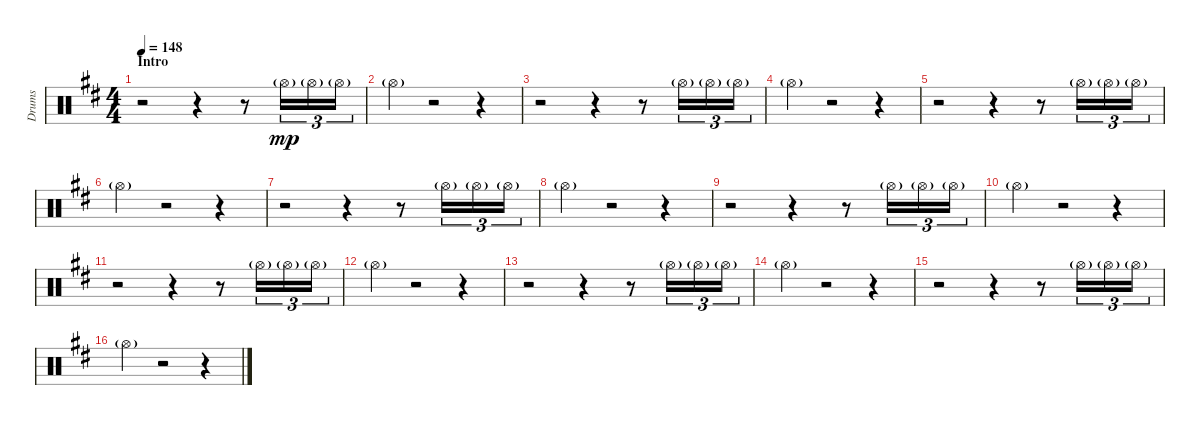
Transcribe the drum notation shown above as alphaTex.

\track ("Drums" "Drums") {instrument percussion}
\staff {score}
\articulation defaults
\ts (4 4)
\section ("" "Intro")
\tempo 148
\tempo 138
\tempo 148
\clef neutral
\ks d
r.2{dy mp} r.4 r.8 "Hi-Hat (open)"{g}.16{tu (3 2)} "Hi-Hat (open)"{g}.16{tu (3 2)} "Hi-Hat (open)"{g}.16{tu (3 2)} |
"Hi-Hat (open)"{g}.4 r.2 r.4 |
r.2 r.4 r.8 "Hi-Hat (open)"{g}.16{tu (3 2)} "Hi-Hat (open)"{g}.16{tu (3 2)} "Hi-Hat (open)"{g}.16{tu (3 2)} |
"Hi-Hat (open)"{g}.4 r.2 r.4 |
r.2 r.4 r.8 "Hi-Hat (open)"{g}.16{tu (3 2)} "Hi-Hat (open)"{g}.16{tu (3 2)} "Hi-Hat (open)"{g}.16{tu (3 2)} |
"Hi-Hat (open)"{g}.4 r.2 r.4 |
r.2 r.4 r.8 "Hi-Hat (open)"{g}.16{tu (3 2)} "Hi-Hat (open)"{g}.16{tu (3 2)} "Hi-Hat (open)"{g}.16{tu (3 2)} |
"Hi-Hat (open)"{g}.4 r.2 r.4 |
r.2 r.4 r.8 "Hi-Hat (open)"{g}.16{tu (3 2)} "Hi-Hat (open)"{g}.16{tu (3 2)} "Hi-Hat (open)"{g}.16{tu (3 2)} |
"Hi-Hat (open)"{g}.4 r.2 r.4 |
r.2 r.4 r.8 "Hi-Hat (open)"{g}.16{tu (3 2)} "Hi-Hat (open)"{g}.16{tu (3 2)} "Hi-Hat (open)"{g}.16{tu (3 2)} |
"Hi-Hat (open)"{g}.4 r.2 r.4 |
r.2 r.4 r.8 "Hi-Hat (open)"{g}.16{tu (3 2)} "Hi-Hat (open)"{g}.16{tu (3 2)} "Hi-Hat (open)"{g}.16{tu (3 2)} |
"Hi-Hat (open)"{g}.4 r.2 r.4 |
r.2 r.4 r.8 "Hi-Hat (open)"{g}.16{tu (3 2)} "Hi-Hat (open)"{g}.16{tu (3 2)} "Hi-Hat (open)"{g}.16{tu (3 2)} |
"Hi-Hat (open)"{g}.4 r.2 r.4
